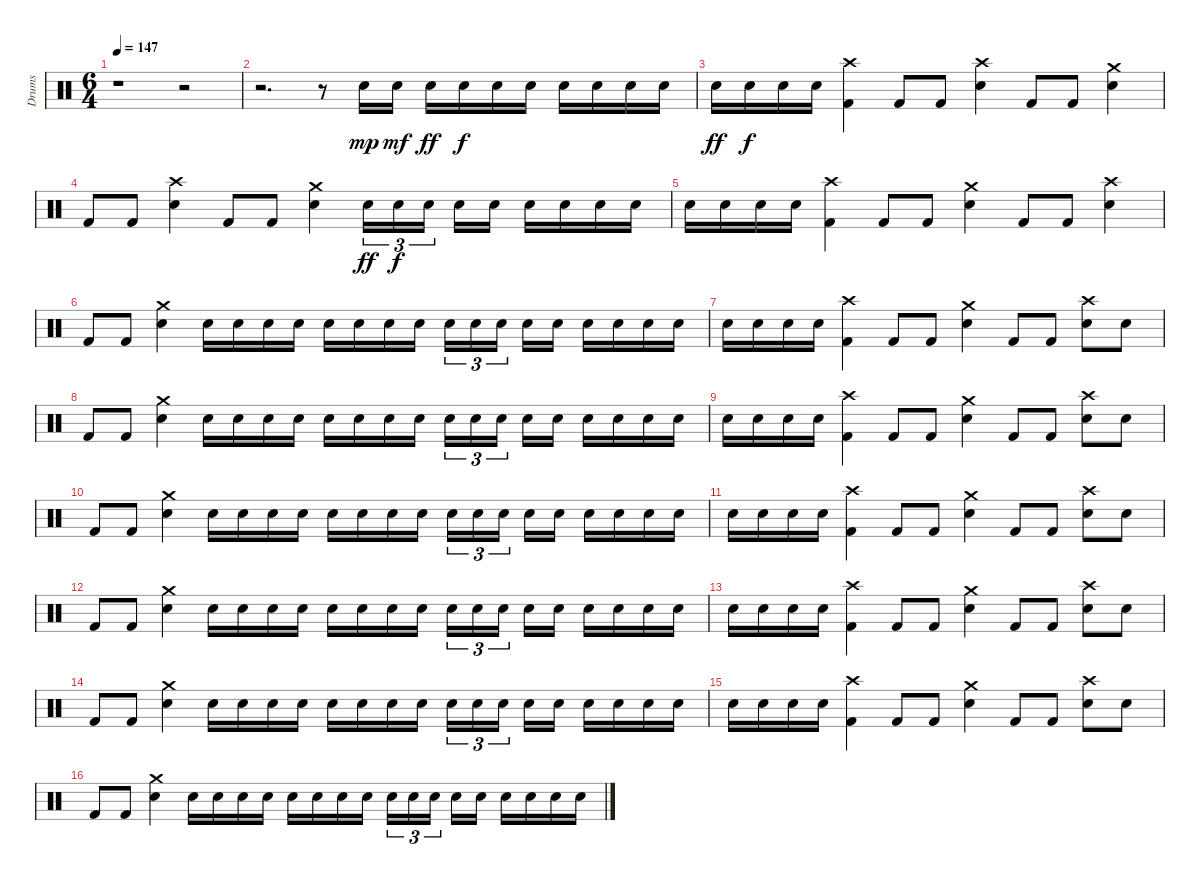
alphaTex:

\track ("Drums" "Drums") {instrument percussion}
\staff {score}
\articulation defaults
\ts (6 4)
\tempo 147
\clef neutral
\ks c
r.1{dy ff} r.2 |
r.2{d} r.8 "Snare (hit) 2".16{dy mp} "Snare (hit) 2".16{dy mf} "Snare (hit) 2".16{dy ff} "Snare (hit) 2".16{dy f} "Snare (hit) 2".16 "Snare (hit) 2".16 "Snare (hit) 2".16 "Snare (hit) 2".16 "Snare (hit) 2".16 "Snare (hit) 2".16 |
"Snare (hit) 2".16{dy ff} "Snare (hit) 2".16{dy f} "Snare (hit) 2".16 "Snare (hit) 2".16 ("Crash high (hit)" "Kick (hit) 2").4 "Kick (hit) 2".8 "Kick (hit) 2".8 ("Crash high (hit)" "Snare (hit) 2").4 "Kick (hit) 2".8 "Kick (hit) 2".8 ("Crash medium (hit)" "Snare (hit) 2").4 |
"Kick (hit) 2".8 "Kick (hit) 2".8 ("Crash high (hit)" "Snare (hit) 2").4 "Kick (hit) 2".8 "Kick (hit) 2".8 ("Crash medium (hit)" "Snare (hit) 2").4 "Snare (hit) 2".16{tu (3 2) dy ff} "Snare (hit) 2".16{tu (3 2) dy f} "Snare (hit) 2".16{tu (3 2)} "Snare (hit) 2".16 "Snare (hit) 2".16 "Snare (hit) 2".16 "Snare (hit) 2".16 "Snare (hit) 2".16 "Snare (hit) 2".16 |
"Snare (hit) 2".16 "Snare (hit) 2".16 "Snare (hit) 2".16 "Snare (hit) 2".16 ("Crash high (hit)" "Kick (hit) 2").4 "Kick (hit) 2".8 "Kick (hit) 2".8 ("Crash medium (hit)" "Snare (hit) 2").4 "Kick (hit) 2".8 "Kick (hit) 2".8 ("Crash high (hit)" "Snare (hit) 2").4 |
"Kick (hit) 2".8{volume 15} "Kick (hit) 2".8 ("Crash medium (hit)" "Snare (hit) 2").4 "Snare (hit) 2".16 "Snare (hit) 2".16 "Snare (hit) 2".16 "Snare (hit) 2".16 "Snare (hit) 2".16 "Snare (hit) 2".16 "Snare (hit) 2".16 "Snare (hit) 2".16 "Snare (hit) 2".16{tu (3 2)} "Snare (hit) 2".16{tu (3 2)} "Snare (hit) 2".16{tu (3 2)} "Snare (hit) 2".16 "Snare (hit) 2".16 "Snare (hit) 2".16 "Snare (hit) 2".16 "Snare (hit) 2".16 "Snare (hit) 2".16 |
"Snare (hit) 2".16 "Snare (hit) 2".16 "Snare (hit) 2".16 "Snare (hit) 2".16 ("Crash high (hit)" "Kick (hit) 2").4 "Kick (hit) 2".8 "Kick (hit) 2".8 ("Crash medium (hit)" "Snare (hit) 2").4 "Kick (hit) 2".8 "Kick (hit) 2".8 ("Crash high (hit)" "Snare (hit) 2").8 "Snare (hit) 2".8 |
"Kick (hit) 2".8{volume 15} "Kick (hit) 2".8 ("Crash medium (hit)" "Snare (hit) 2").4 "Snare (hit) 2".16 "Snare (hit) 2".16 "Snare (hit) 2".16 "Snare (hit) 2".16 "Snare (hit) 2".16 "Snare (hit) 2".16 "Snare (hit) 2".16 "Snare (hit) 2".16 "Snare (hit) 2".16{tu (3 2)} "Snare (hit) 2".16{tu (3 2)} "Snare (hit) 2".16{tu (3 2)} "Snare (hit) 2".16 "Snare (hit) 2".16 "Snare (hit) 2".16 "Snare (hit) 2".16 "Snare (hit) 2".16 "Snare (hit) 2".16 |
"Snare (hit) 2".16 "Snare (hit) 2".16 "Snare (hit) 2".16 "Snare (hit) 2".16 ("Crash high (hit)" "Kick (hit) 2").4 "Kick (hit) 2".8 "Kick (hit) 2".8 ("Crash medium (hit)" "Snare (hit) 2").4 "Kick (hit) 2".8 "Kick (hit) 2".8 ("Crash high (hit)" "Snare (hit) 2").8 "Snare (hit) 2".8 |
"Kick (hit) 2".8{volume 13} "Kick (hit) 2".8 ("Crash medium (hit)" "Snare (hit) 2").4 "Snare (hit) 2".16 "Snare (hit) 2".16 "Snare (hit) 2".16 "Snare (hit) 2".16 "Snare (hit) 2".16 "Snare (hit) 2".16 "Snare (hit) 2".16 "Snare (hit) 2".16 "Snare (hit) 2".16{tu (3 2)} "Snare (hit) 2".16{tu (3 2)} "Snare (hit) 2".16{tu (3 2)} "Snare (hit) 2".16 "Snare (hit) 2".16 "Snare (hit) 2".16 "Snare (hit) 2".16 "Snare (hit) 2".16 "Snare (hit) 2".16 |
"Snare (hit) 2".16{volume 11} "Snare (hit) 2".16 "Snare (hit) 2".16 "Snare (hit) 2".16 ("Crash high (hit)" "Kick (hit) 2").4 "Kick (hit) 2".8 "Kick (hit) 2".8 ("Crash medium (hit)" "Snare (hit) 2").4 "Kick (hit) 2".8 "Kick (hit) 2".8 ("Crash high (hit)" "Snare (hit) 2").8 "Snare (hit) 2".8 |
"Kick (hit) 2".8{volume 9} "Kick (hit) 2".8 ("Crash medium (hit)" "Snare (hit) 2").4 "Snare (hit) 2".16 "Snare (hit) 2".16 "Snare (hit) 2".16 "Snare (hit) 2".16 "Snare (hit) 2".16 "Snare (hit) 2".16 "Snare (hit) 2".16 "Snare (hit) 2".16 "Snare (hit) 2".16{tu (3 2)} "Snare (hit) 2".16{tu (3 2)} "Snare (hit) 2".16{tu (3 2)} "Snare (hit) 2".16 "Snare (hit) 2".16 "Snare (hit) 2".16 "Snare (hit) 2".16 "Snare (hit) 2".16 "Snare (hit) 2".16 |
"Snare (hit) 2".16{volume 7} "Snare (hit) 2".16 "Snare (hit) 2".16 "Snare (hit) 2".16 ("Crash high (hit)" "Kick (hit) 2").4 "Kick (hit) 2".8 "Kick (hit) 2".8 ("Crash medium (hit)" "Snare (hit) 2").4 "Kick (hit) 2".8 "Kick (hit) 2".8 ("Crash high (hit)" "Snare (hit) 2").8 "Snare (hit) 2".8 |
"Kick (hit) 2".8{volume 5} "Kick (hit) 2".8 ("Crash medium (hit)" "Snare (hit) 2").4 "Snare (hit) 2".16 "Snare (hit) 2".16 "Snare (hit) 2".16 "Snare (hit) 2".16 "Snare (hit) 2".16 "Snare (hit) 2".16 "Snare (hit) 2".16 "Snare (hit) 2".16 "Snare (hit) 2".16{tu (3 2)} "Snare (hit) 2".16{tu (3 2)} "Snare (hit) 2".16{tu (3 2)} "Snare (hit) 2".16 "Snare (hit) 2".16 "Snare (hit) 2".16 "Snare (hit) 2".16 "Snare (hit) 2".16 "Snare (hit) 2".16 |
"Snare (hit) 2".16{volume 4} "Snare (hit) 2".16 "Snare (hit) 2".16 "Snare (hit) 2".16 ("Crash high (hit)" "Kick (hit) 2").4 "Kick (hit) 2".8 "Kick (hit) 2".8 ("Crash medium (hit)" "Snare (hit) 2").4 "Kick (hit) 2".8 "Kick (hit) 2".8 ("Crash high (hit)" "Snare (hit) 2").8 "Snare (hit) 2".8 |
"Kick (hit) 2".8{volume 3} "Kick (hit) 2".8 ("Crash medium (hit)" "Snare (hit) 2").4 "Snare (hit) 2".16 "Snare (hit) 2".16 "Snare (hit) 2".16 "Snare (hit) 2".16 "Snare (hit) 2".16 "Snare (hit) 2".16 "Snare (hit) 2".16 "Snare (hit) 2".16 "Snare (hit) 2".16{tu (3 2)} "Snare (hit) 2".16{tu (3 2)} "Snare (hit) 2".16{tu (3 2)} "Snare (hit) 2".16 "Snare (hit) 2".16 "Snare (hit) 2".16 "Snare (hit) 2".16 "Snare (hit) 2".16 "Snare (hit) 2".16
